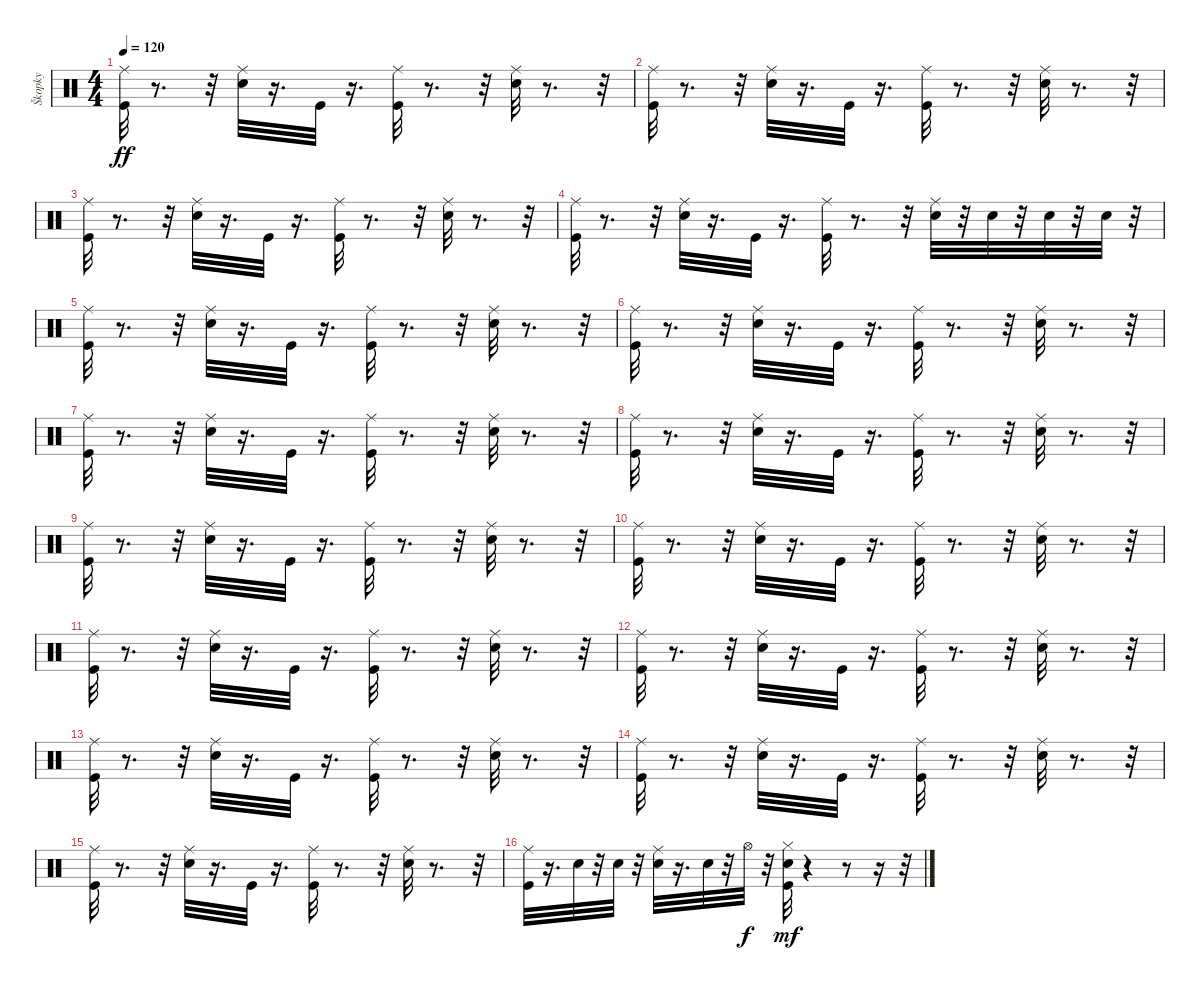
\track ("Škopky" "Škopky") {instrument percussion}
\staff {score}
\articulation defaults
\ts (4 4)
\tempo 120
\clef neutral
\ks c
("Kick (hit)" "Ride (middle)").32{dy ff} r.8{d} r.32 ("Snare (hit) 2" "Ride (middle)").32 r.16{d} "Kick (hit)".32 r.16{d} ("Kick (hit)" "Ride (middle)").32 r.8{d} r.32 ("Snare (hit) 2" "Ride (middle)").32 r.8{d} r.32 |
("Kick (hit)" "Ride (middle)").32 r.8{d} r.32 ("Snare (hit) 2" "Ride (middle)").32 r.16{d} "Kick (hit)".32 r.16{d} ("Kick (hit)" "Ride (middle)").32 r.8{d} r.32 ("Snare (hit) 2" "Ride (middle)").32 r.8{d} r.32 |
("Kick (hit)" "Ride (middle)").32 r.8{d} r.32 ("Snare (hit) 2" "Ride (middle)").32 r.16{d} "Kick (hit)".32 r.16{d} ("Kick (hit)" "Ride (middle)").32 r.8{d} r.32 ("Snare (hit) 2" "Ride (middle)").32 r.8{d} r.32 |
("Kick (hit)" "Ride (middle)").32 r.8{d} r.32 ("Snare (hit) 2" "Ride (middle)").32 r.16{d} "Kick (hit)".32 r.16{d} ("Kick (hit)" "Ride (middle)").32 r.8{d} r.32 ("Snare (hit) 2" "Ride (middle)").32 r.32 "Snare (hit) 2".32 r.32 "Snare (hit) 2".32 r.32 "Snare (hit) 2".32 r.32 |
("Kick (hit)" "Ride (middle)").32 r.8{d} r.32 ("Snare (hit) 2" "Ride (middle)").32 r.16{d} "Kick (hit)".32 r.16{d} ("Kick (hit)" "Ride (middle)").32 r.8{d} r.32 ("Snare (hit) 2" "Ride (middle)").32 r.8{d} r.32 |
("Kick (hit)" "Ride (middle)").32 r.8{d} r.32 ("Snare (hit) 2" "Ride (middle)").32 r.16{d} "Kick (hit)".32 r.16{d} ("Kick (hit)" "Ride (middle)").32 r.8{d} r.32 ("Snare (hit) 2" "Ride (middle)").32 r.8{d} r.32 |
("Kick (hit)" "Ride (middle)").32 r.8{d} r.32 ("Snare (hit) 2" "Ride (middle)").32 r.16{d} "Kick (hit)".32 r.16{d} ("Kick (hit)" "Ride (middle)").32 r.8{d} r.32 ("Snare (hit) 2" "Ride (middle)").32 r.8{d} r.32 |
("Kick (hit)" "Ride (middle)").32 r.8{d} r.32 ("Snare (hit) 2" "Ride (middle)").32 r.16{d} "Kick (hit)".32 r.16{d} ("Kick (hit)" "Ride (middle)").32 r.8{d} r.32 ("Snare (hit) 2" "Ride (middle)").32 r.8{d} r.32 |
("Kick (hit)" "Ride (middle)").32 r.8{d} r.32 ("Snare (hit) 2" "Ride (middle)").32 r.16{d} "Kick (hit)".32 r.16{d} ("Kick (hit)" "Ride (middle)").32 r.8{d} r.32 ("Snare (hit) 2" "Ride (middle)").32 r.8{d} r.32 |
("Kick (hit)" "Ride (middle)").32 r.8{d} r.32 ("Snare (hit) 2" "Ride (middle)").32 r.16{d} "Kick (hit)".32 r.16{d} ("Kick (hit)" "Ride (middle)").32 r.8{d} r.32 ("Snare (hit) 2" "Ride (middle)").32 r.8{d} r.32 |
("Kick (hit)" "Ride (middle)").32 r.8{d} r.32 ("Snare (hit) 2" "Ride (middle)").32 r.16{d} "Kick (hit)".32 r.16{d} ("Kick (hit)" "Ride (middle)").32 r.8{d} r.32 ("Snare (hit) 2" "Ride (middle)").32 r.8{d} r.32 |
("Kick (hit)" "Ride (middle)").32 r.8{d} r.32 ("Snare (hit) 2" "Ride (middle)").32 r.16{d} "Kick (hit)".32 r.16{d} ("Kick (hit)" "Ride (middle)").32 r.8{d} r.32 ("Snare (hit) 2" "Ride (middle)").32 r.8{d} r.32 |
("Kick (hit)" "Ride (middle)").32 r.8{d} r.32 ("Snare (hit) 2" "Ride (middle)").32 r.16{d} "Kick (hit)".32 r.16{d} ("Kick (hit)" "Ride (middle)").32 r.8{d} r.32 ("Snare (hit) 2" "Ride (middle)").32 r.8{d} r.32 |
("Kick (hit)" "Ride (middle)").32 r.8{d} r.32 ("Snare (hit) 2" "Ride (middle)").32 r.16{d} "Kick (hit)".32 r.16{d} ("Kick (hit)" "Ride (middle)").32 r.8{d} r.32 ("Snare (hit) 2" "Ride (middle)").32 r.8{d} r.32 |
("Kick (hit)" "Ride (middle)").32 r.8{d} r.32 ("Snare (hit) 2" "Ride (middle)").32 r.16{d} "Kick (hit)".32 r.16{d} ("Kick (hit)" "Ride (middle)").32 r.8{d} r.32 ("Snare (hit) 2" "Ride (middle)").32 r.8{d} r.32 |
("Kick (hit)" "Ride (middle)").32 r.16{d} "Snare (hit) 2".32 r.32 "Snare (hit) 2".32 r.32 ("Snare (hit) 2" "Ride (middle)").32 r.16{d} "Snare (hit) 2".32 r.32 "Hi-Hat (open)".32{dy f} r.32 ("Kick (hit)" "Snare (hit) 2" "Hi-Hat (closed)").32{dy mf} r.4 r.8 r.16 r.32
